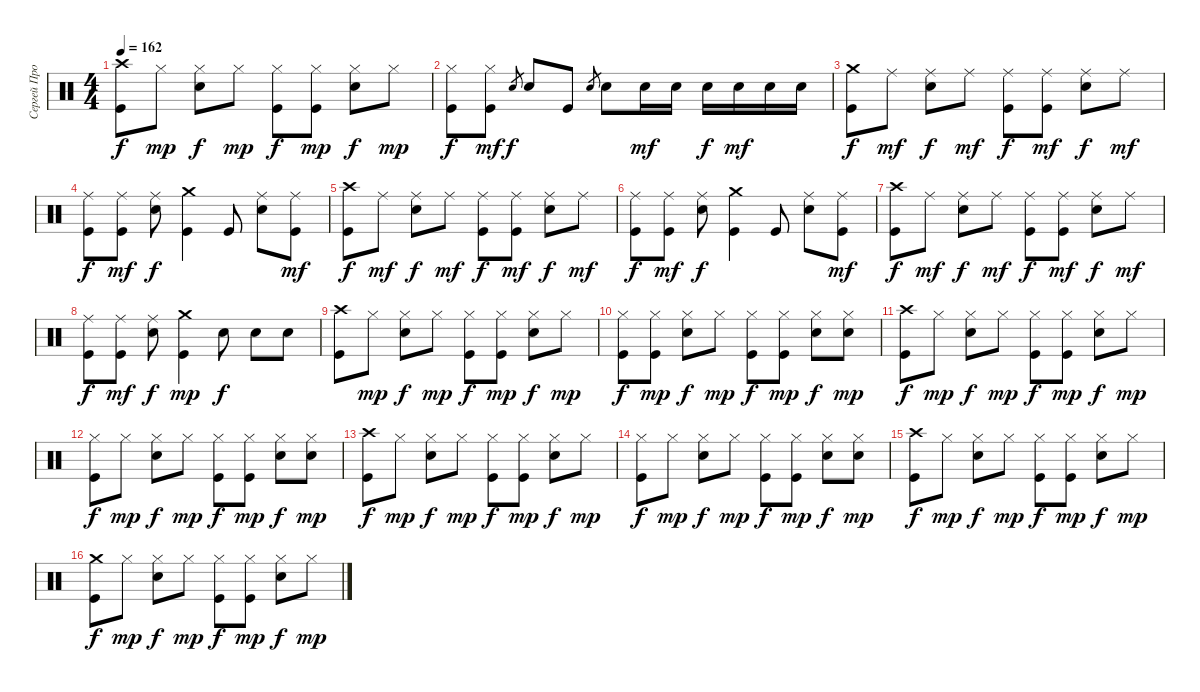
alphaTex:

\track ("Сергей Прокофьев" "Сергей Про") {instrument percussion}
\staff {score}
\articulation defaults
\ts (4 4)
\tempo 162
\clef neutral
\ks c
("Crash high (hit)" "Kick (hit)").8{dy f} "Hi-Hat (closed)".8{dy mp} ("Hi-Hat (closed)" "Electric Snare (hit)").8{dy f} "Hi-Hat (closed)".8{dy mp} ("Hi-Hat (closed)" "Kick (hit)").8{dy f} ("Hi-Hat (closed)" "Kick (hit)").8{dy mp} ("Hi-Hat (closed)" "Electric Snare (hit)").8{dy f} "Hi-Hat (closed)".8{dy mp} |
("Hi-Hat (closed)" "Kick (hit)").8{dy f} ("Hi-Hat (closed)" "Kick (hit)").8{dy mf} "Electric Snare (hit)".8{gr dy f} "Electric Snare (hit)".8 "Kick (hit)".8 "Electric Snare (hit)".8{gr} "Electric Snare (hit)".8 "Electric Snare (hit)".16{dy mf} "Electric Snare (hit)".16 "Electric Snare (hit)".16{dy f} "Electric Snare (hit)".16{dy mf} "Electric Snare (hit)".16 "Electric Snare (hit)".16 |
("Crash medium (hit)" "Kick (hit)").8{dy f} "Ride (middle)".8{dy mf} ("Ride (middle)" "Electric Snare (hit)").8{dy f} "Ride (middle)".8{dy mf} ("Ride (middle)" "Kick (hit)").8{dy f} ("Ride (middle)" "Kick (hit)").8{dy mf} ("Ride (middle)" "Electric Snare (hit)").8{dy f} "Ride (middle)".8{dy mf} |
("Ride (middle)" "Kick (hit)").8{dy f} ("Ride (middle)" "Kick (hit)").8{dy mf} ("Ride (middle)" "Electric Snare (hit)").8{dy f} ("Crash medium (hit)" "Kick (hit)").4 "Kick (hit)".8 ("Ride (middle)" "Electric Snare (hit)").8 ("Ride (middle)" "Kick (hit)").8{dy mf} |
("Crash high (hit)" "Kick (hit)").8{dy f} "Ride (middle)".8{dy mf} ("Ride (middle)" "Electric Snare (hit)").8{dy f} "Ride (middle)".8{dy mf} ("Ride (middle)" "Kick (hit)").8{dy f} ("Ride (middle)" "Kick (hit)").8{dy mf} ("Ride (middle)" "Electric Snare (hit)").8{dy f} "Ride (middle)".8{dy mf} |
("Ride (middle)" "Kick (hit)").8{dy f} ("Ride (middle)" "Kick (hit)").8{dy mf} ("Ride (middle)" "Electric Snare (hit)").8{dy f} ("Crash medium (hit)" "Kick (hit)").4 "Kick (hit)".8 ("Ride (middle)" "Electric Snare (hit)").8 ("Ride (middle)" "Kick (hit)").8{dy mf} |
("Crash high (hit)" "Kick (hit)").8{dy f} "Ride (middle)".8{dy mf} ("Ride (middle)" "Electric Snare (hit)").8{dy f} "Ride (middle)".8{dy mf} ("Ride (middle)" "Kick (hit)").8{dy f} ("Ride (middle)" "Kick (hit)").8{dy mf} ("Ride (middle)" "Electric Snare (hit)").8{dy f} "Ride (middle)".8{dy mf} |
("Ride (middle)" "Kick (hit)").8{dy f} ("Ride (middle)" "Kick (hit)").8{dy mf} ("Ride (middle)" "Electric Snare (hit)").8{dy f} ("Crash medium (hit)" "Kick (hit)").4{dy mp} "Electric Snare (hit)".8{dy f} "Electric Snare (hit)".8 "Electric Snare (hit)".8 |
("Crash high (hit)" "Kick (hit)").8 "Hi-Hat (closed)".8{dy mp} ("Hi-Hat (closed)" "Electric Snare (hit)").8{dy f} "Hi-Hat (closed)".8{dy mp} ("Hi-Hat (closed)" "Kick (hit)").8{dy f} ("Hi-Hat (closed)" "Kick (hit)").8{dy mp} ("Hi-Hat (closed)" "Electric Snare (hit)").8{dy f} "Hi-Hat (closed)".8{dy mp} |
("Hi-Hat (closed)" "Kick (hit)").8{dy f} ("Hi-Hat (closed)" "Kick (hit)").8{dy mp} ("Hi-Hat (closed)" "Electric Snare (hit)").8{dy f} "Hi-Hat (closed)".8{dy mp} ("Hi-Hat (closed)" "Kick (hit)").8{dy f} ("Hi-Hat (closed)" "Kick (hit)").8{dy mp} ("Hi-Hat (closed)" "Electric Snare (hit)").8{dy f} ("Hi-Hat (closed)" "Electric Snare (hit)").8{dy mp} |
("Crash high (hit)" "Kick (hit)").8{dy f} "Hi-Hat (closed)".8{dy mp} ("Hi-Hat (closed)" "Electric Snare (hit)").8{dy f} "Hi-Hat (closed)".8{dy mp} ("Hi-Hat (closed)" "Kick (hit)").8{dy f} ("Hi-Hat (closed)" "Kick (hit)").8{dy mp} ("Hi-Hat (closed)" "Electric Snare (hit)").8{dy f} "Hi-Hat (closed)".8{dy mp} |
("Hi-Hat (closed)" "Kick (hit)").8{dy f} "Hi-Hat (closed)".8{dy mp} ("Hi-Hat (closed)" "Electric Snare (hit)").8{dy f} "Hi-Hat (closed)".8{dy mp} ("Hi-Hat (closed)" "Kick (hit)").8{dy f} ("Hi-Hat (closed)" "Kick (hit)").8{dy mp} ("Hi-Hat (closed)" "Electric Snare (hit)").8{dy f} ("Hi-Hat (closed)" "Electric Snare (hit)").8{dy mp} |
("Crash high (hit)" "Kick (hit)").8{dy f} "Hi-Hat (closed)".8{dy mp} ("Hi-Hat (closed)" "Electric Snare (hit)").8{dy f} "Hi-Hat (closed)".8{dy mp} ("Hi-Hat (closed)" "Kick (hit)").8{dy f} ("Hi-Hat (closed)" "Kick (hit)").8{dy mp} ("Hi-Hat (closed)" "Electric Snare (hit)").8{dy f} "Hi-Hat (closed)".8{dy mp} |
("Hi-Hat (closed)" "Kick (hit)").8{dy f} "Hi-Hat (closed)".8{dy mp} ("Hi-Hat (closed)" "Electric Snare (hit)").8{dy f} "Hi-Hat (closed)".8{dy mp} ("Hi-Hat (closed)" "Kick (hit)").8{dy f} ("Hi-Hat (closed)" "Kick (hit)").8{dy mp} ("Hi-Hat (closed)" "Electric Snare (hit)").8{dy f} ("Hi-Hat (closed)" "Electric Snare (hit)").8{dy mp} |
("Crash high (hit)" "Kick (hit)").8{dy f} "Hi-Hat (closed)".8{dy mp} ("Hi-Hat (closed)" "Electric Snare (hit)").8{dy f} "Hi-Hat (closed)".8{dy mp} ("Hi-Hat (closed)" "Kick (hit)").8{dy f} ("Hi-Hat (closed)" "Kick (hit)").8{dy mp} ("Hi-Hat (closed)" "Electric Snare (hit)").8{dy f} "Hi-Hat (closed)".8{dy mp} |
("Crash medium (hit)" "Kick (hit)").8{dy f} "Hi-Hat (closed)".8{dy mp} ("Hi-Hat (closed)" "Electric Snare (hit)").8{dy f} "Hi-Hat (closed)".8{dy mp} ("Hi-Hat (closed)" "Kick (hit)").8{dy f} ("Hi-Hat (closed)" "Kick (hit)").8{dy mp} ("Hi-Hat (closed)" "Electric Snare (hit)").8{dy f} "Hi-Hat (closed)".8{dy mp}
